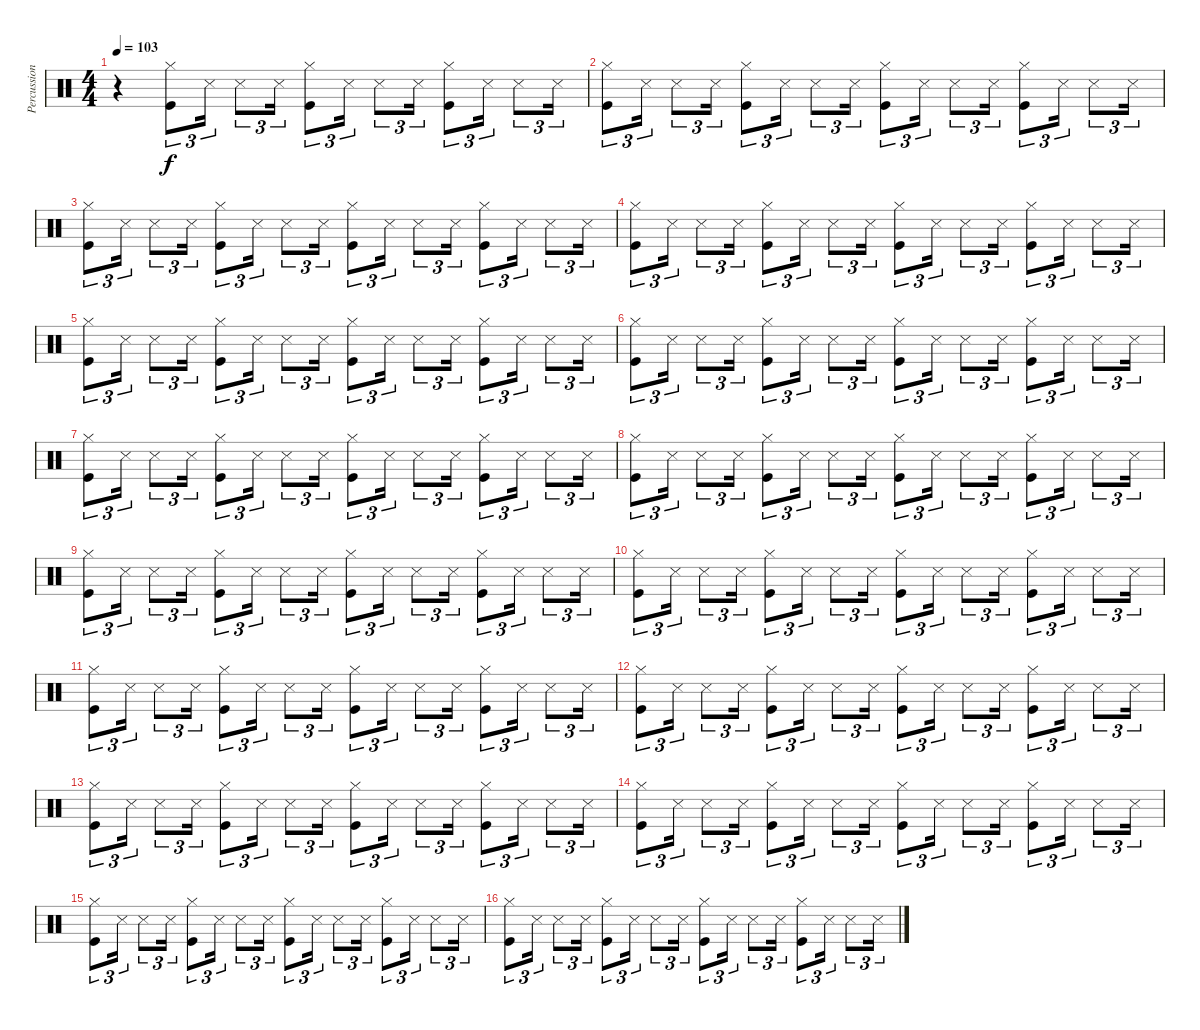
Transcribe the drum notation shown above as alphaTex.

\track ("Percussion" "Percussion") {instrument percussion}
\staff {score}
\articulation defaults
\ts (4 4)
\tempo 103
\tempo 101
\tempo 103
\clef neutral
\ks c
r.4{dy f volume 12} ("Hi-Hat (closed)" "Kick (hit)").8{tu (3 2)} "Metronome (hit)".16{tu (3 2)} "Metronome (hit)".8{tu (3 2)} "Metronome (hit)".16{tu (3 2)} ("Hi-Hat (closed)" "Kick (hit)").8{tu (3 2)} "Metronome (hit)".16{tu (3 2)} "Metronome (hit)".8{tu (3 2)} "Metronome (hit)".16{tu (3 2)} ("Hi-Hat (closed)" "Kick (hit)").8{tu (3 2)} "Metronome (hit)".16{tu (3 2)} "Metronome (hit)".8{tu (3 2)} "Metronome (hit)".16{tu (3 2)} |
("Hi-Hat (closed)" "Kick (hit)").8{tu (3 2)} "Metronome (hit)".16{tu (3 2)} "Metronome (hit)".8{tu (3 2)} "Metronome (hit)".16{tu (3 2)} ("Hi-Hat (closed)" "Kick (hit)").8{tu (3 2)} "Metronome (hit)".16{tu (3 2)} "Metronome (hit)".8{tu (3 2)} "Metronome (hit)".16{tu (3 2)} ("Hi-Hat (closed)" "Kick (hit)").8{tu (3 2)} "Metronome (hit)".16{tu (3 2)} "Metronome (hit)".8{tu (3 2)} "Metronome (hit)".16{tu (3 2)} ("Hi-Hat (closed)" "Kick (hit)").8{tu (3 2)} "Metronome (hit)".16{tu (3 2)} "Metronome (hit)".8{tu (3 2)} "Metronome (hit)".16{tu (3 2)} |
("Hi-Hat (closed)" "Kick (hit)").8{tu (3 2)} "Metronome (hit)".16{tu (3 2)} "Metronome (hit)".8{tu (3 2)} "Metronome (hit)".16{tu (3 2)} ("Hi-Hat (closed)" "Kick (hit)").8{tu (3 2)} "Metronome (hit)".16{tu (3 2)} "Metronome (hit)".8{tu (3 2)} "Metronome (hit)".16{tu (3 2)} ("Hi-Hat (closed)" "Kick (hit)").8{tu (3 2)} "Metronome (hit)".16{tu (3 2)} "Metronome (hit)".8{tu (3 2)} "Metronome (hit)".16{tu (3 2)} ("Hi-Hat (closed)" "Kick (hit)").8{tu (3 2)} "Metronome (hit)".16{tu (3 2)} "Metronome (hit)".8{tu (3 2)} "Metronome (hit)".16{tu (3 2)} |
("Hi-Hat (closed)" "Kick (hit)").8{tu (3 2)} "Metronome (hit)".16{tu (3 2)} "Metronome (hit)".8{tu (3 2)} "Metronome (hit)".16{tu (3 2)} ("Hi-Hat (closed)" "Kick (hit)").8{tu (3 2)} "Metronome (hit)".16{tu (3 2)} "Metronome (hit)".8{tu (3 2)} "Metronome (hit)".16{tu (3 2)} ("Hi-Hat (closed)" "Kick (hit)").8{tu (3 2)} "Metronome (hit)".16{tu (3 2)} "Metronome (hit)".8{tu (3 2)} "Metronome (hit)".16{tu (3 2)} ("Hi-Hat (closed)" "Kick (hit)").8{tu (3 2)} "Metronome (hit)".16{tu (3 2)} "Metronome (hit)".8{tu (3 2)} "Metronome (hit)".16{tu (3 2)} |
("Hi-Hat (closed)" "Kick (hit)").8{tu (3 2)} "Metronome (hit)".16{tu (3 2)} "Metronome (hit)".8{tu (3 2)} "Metronome (hit)".16{tu (3 2)} ("Hi-Hat (closed)" "Kick (hit)").8{tu (3 2)} "Metronome (hit)".16{tu (3 2)} "Metronome (hit)".8{tu (3 2)} "Metronome (hit)".16{tu (3 2)} ("Hi-Hat (closed)" "Kick (hit)").8{tu (3 2)} "Metronome (hit)".16{tu (3 2)} "Metronome (hit)".8{tu (3 2)} "Metronome (hit)".16{tu (3 2)} ("Hi-Hat (closed)" "Kick (hit)").8{tu (3 2)} "Metronome (hit)".16{tu (3 2)} "Metronome (hit)".8{tu (3 2)} "Metronome (hit)".16{tu (3 2)} |
("Hi-Hat (closed)" "Kick (hit)").8{tu (3 2)} "Metronome (hit)".16{tu (3 2)} "Metronome (hit)".8{tu (3 2)} "Metronome (hit)".16{tu (3 2)} ("Hi-Hat (closed)" "Kick (hit)").8{tu (3 2)} "Metronome (hit)".16{tu (3 2)} "Metronome (hit)".8{tu (3 2)} "Metronome (hit)".16{tu (3 2)} ("Hi-Hat (closed)" "Kick (hit)").8{tu (3 2)} "Metronome (hit)".16{tu (3 2)} "Metronome (hit)".8{tu (3 2)} "Metronome (hit)".16{tu (3 2)} ("Hi-Hat (closed)" "Kick (hit)").8{tu (3 2)} "Metronome (hit)".16{tu (3 2)} "Metronome (hit)".8{tu (3 2)} "Metronome (hit)".16{tu (3 2)} |
("Hi-Hat (closed)" "Kick (hit)").8{tu (3 2)} "Metronome (hit)".16{tu (3 2)} "Metronome (hit)".8{tu (3 2)} "Metronome (hit)".16{tu (3 2)} ("Hi-Hat (closed)" "Kick (hit)").8{tu (3 2)} "Metronome (hit)".16{tu (3 2)} "Metronome (hit)".8{tu (3 2)} "Metronome (hit)".16{tu (3 2)} ("Hi-Hat (closed)" "Kick (hit)").8{tu (3 2)} "Metronome (hit)".16{tu (3 2)} "Metronome (hit)".8{tu (3 2)} "Metronome (hit)".16{tu (3 2)} ("Hi-Hat (closed)" "Kick (hit)").8{tu (3 2)} "Metronome (hit)".16{tu (3 2)} "Metronome (hit)".8{tu (3 2)} "Metronome (hit)".16{tu (3 2)} |
("Hi-Hat (closed)" "Kick (hit)").8{tu (3 2)} "Metronome (hit)".16{tu (3 2)} "Metronome (hit)".8{tu (3 2)} "Metronome (hit)".16{tu (3 2)} ("Hi-Hat (closed)" "Kick (hit)").8{tu (3 2)} "Metronome (hit)".16{tu (3 2)} "Metronome (hit)".8{tu (3 2)} "Metronome (hit)".16{tu (3 2)} ("Hi-Hat (closed)" "Kick (hit)").8{tu (3 2)} "Metronome (hit)".16{tu (3 2)} "Metronome (hit)".8{tu (3 2)} "Metronome (hit)".16{tu (3 2)} ("Hi-Hat (closed)" "Kick (hit)").8{tu (3 2)} "Metronome (hit)".16{tu (3 2)} "Metronome (hit)".8{tu (3 2)} "Metronome (hit)".16{tu (3 2)} |
("Hi-Hat (closed)" "Kick (hit)").8{tu (3 2)} "Metronome (hit)".16{tu (3 2)} "Metronome (hit)".8{tu (3 2)} "Metronome (hit)".16{tu (3 2)} ("Hi-Hat (closed)" "Kick (hit)").8{tu (3 2)} "Metronome (hit)".16{tu (3 2)} "Metronome (hit)".8{tu (3 2)} "Metronome (hit)".16{tu (3 2)} ("Hi-Hat (closed)" "Kick (hit)").8{tu (3 2)} "Metronome (hit)".16{tu (3 2)} "Metronome (hit)".8{tu (3 2)} "Metronome (hit)".16{tu (3 2)} ("Hi-Hat (closed)" "Kick (hit)").8{tu (3 2)} "Metronome (hit)".16{tu (3 2)} "Metronome (hit)".8{tu (3 2)} "Metronome (hit)".16{tu (3 2)} |
("Hi-Hat (closed)" "Kick (hit)").8{tu (3 2)} "Metronome (hit)".16{tu (3 2)} "Metronome (hit)".8{tu (3 2)} "Metronome (hit)".16{tu (3 2)} ("Hi-Hat (closed)" "Kick (hit)").8{tu (3 2)} "Metronome (hit)".16{tu (3 2)} "Metronome (hit)".8{tu (3 2)} "Metronome (hit)".16{tu (3 2)} ("Hi-Hat (closed)" "Kick (hit)").8{tu (3 2)} "Metronome (hit)".16{tu (3 2)} "Metronome (hit)".8{tu (3 2)} "Metronome (hit)".16{tu (3 2)} ("Hi-Hat (closed)" "Kick (hit)").8{tu (3 2)} "Metronome (hit)".16{tu (3 2)} "Metronome (hit)".8{tu (3 2)} "Metronome (hit)".16{tu (3 2)} |
("Hi-Hat (closed)" "Kick (hit)").8{tu (3 2)} "Metronome (hit)".16{tu (3 2)} "Metronome (hit)".8{tu (3 2)} "Metronome (hit)".16{tu (3 2)} ("Hi-Hat (closed)" "Kick (hit)").8{tu (3 2)} "Metronome (hit)".16{tu (3 2)} "Metronome (hit)".8{tu (3 2)} "Metronome (hit)".16{tu (3 2)} ("Hi-Hat (closed)" "Kick (hit)").8{tu (3 2)} "Metronome (hit)".16{tu (3 2)} "Metronome (hit)".8{tu (3 2)} "Metronome (hit)".16{tu (3 2)} ("Hi-Hat (closed)" "Kick (hit)").8{tu (3 2)} "Metronome (hit)".16{tu (3 2)} "Metronome (hit)".8{tu (3 2)} "Metronome (hit)".16{tu (3 2)} |
("Hi-Hat (closed)" "Kick (hit)").8{tu (3 2)} "Metronome (hit)".16{tu (3 2)} "Metronome (hit)".8{tu (3 2)} "Metronome (hit)".16{tu (3 2)} ("Hi-Hat (closed)" "Kick (hit)").8{tu (3 2)} "Metronome (hit)".16{tu (3 2)} "Metronome (hit)".8{tu (3 2)} "Metronome (hit)".16{tu (3 2)} ("Hi-Hat (closed)" "Kick (hit)").8{tu (3 2)} "Metronome (hit)".16{tu (3 2)} "Metronome (hit)".8{tu (3 2)} "Metronome (hit)".16{tu (3 2)} ("Hi-Hat (closed)" "Kick (hit)").8{tu (3 2)} "Metronome (hit)".16{tu (3 2)} "Metronome (hit)".8{tu (3 2)} "Metronome (hit)".16{tu (3 2)} |
("Hi-Hat (closed)" "Kick (hit)").8{tu (3 2)} "Metronome (hit)".16{tu (3 2)} "Metronome (hit)".8{tu (3 2)} "Metronome (hit)".16{tu (3 2)} ("Hi-Hat (closed)" "Kick (hit)").8{tu (3 2)} "Metronome (hit)".16{tu (3 2)} "Metronome (hit)".8{tu (3 2)} "Metronome (hit)".16{tu (3 2)} ("Hi-Hat (closed)" "Kick (hit)").8{tu (3 2)} "Metronome (hit)".16{tu (3 2)} "Metronome (hit)".8{tu (3 2)} "Metronome (hit)".16{tu (3 2)} ("Hi-Hat (closed)" "Kick (hit)").8{tu (3 2)} "Metronome (hit)".16{tu (3 2)} "Metronome (hit)".8{tu (3 2)} "Metronome (hit)".16{tu (3 2)} |
("Hi-Hat (closed)" "Kick (hit)").8{tu (3 2)} "Metronome (hit)".16{tu (3 2)} "Metronome (hit)".8{tu (3 2)} "Metronome (hit)".16{tu (3 2)} ("Hi-Hat (closed)" "Kick (hit)").8{tu (3 2)} "Metronome (hit)".16{tu (3 2)} "Metronome (hit)".8{tu (3 2)} "Metronome (hit)".16{tu (3 2)} ("Hi-Hat (closed)" "Kick (hit)").8{tu (3 2)} "Metronome (hit)".16{tu (3 2)} "Metronome (hit)".8{tu (3 2)} "Metronome (hit)".16{tu (3 2)} ("Hi-Hat (closed)" "Kick (hit)").8{tu (3 2)} "Metronome (hit)".16{tu (3 2)} "Metronome (hit)".8{tu (3 2)} "Metronome (hit)".16{tu (3 2)} |
("Hi-Hat (closed)" "Kick (hit)").8{tu (3 2)} "Metronome (hit)".16{tu (3 2)} "Metronome (hit)".8{tu (3 2)} "Metronome (hit)".16{tu (3 2)} ("Hi-Hat (closed)" "Kick (hit)").8{tu (3 2)} "Metronome (hit)".16{tu (3 2)} "Metronome (hit)".8{tu (3 2)} "Metronome (hit)".16{tu (3 2)} ("Hi-Hat (closed)" "Kick (hit)").8{tu (3 2)} "Metronome (hit)".16{tu (3 2)} "Metronome (hit)".8{tu (3 2)} "Metronome (hit)".16{tu (3 2)} ("Hi-Hat (closed)" "Kick (hit)").8{tu (3 2)} "Metronome (hit)".16{tu (3 2)} "Metronome (hit)".8{tu (3 2)} "Metronome (hit)".16{tu (3 2)} |
("Hi-Hat (closed)" "Kick (hit)").8{tu (3 2)} "Metronome (hit)".16{tu (3 2)} "Metronome (hit)".8{tu (3 2)} "Metronome (hit)".16{tu (3 2)} ("Hi-Hat (closed)" "Kick (hit)").8{tu (3 2)} "Metronome (hit)".16{tu (3 2)} "Metronome (hit)".8{tu (3 2)} "Metronome (hit)".16{tu (3 2)} ("Hi-Hat (closed)" "Kick (hit)").8{tu (3 2)} "Metronome (hit)".16{tu (3 2)} "Metronome (hit)".8{tu (3 2)} "Metronome (hit)".16{tu (3 2)} ("Hi-Hat (closed)" "Kick (hit)").8{tu (3 2)} "Metronome (hit)".16{tu (3 2)} "Metronome (hit)".8{tu (3 2)} "Metronome (hit)".16{tu (3 2)}
